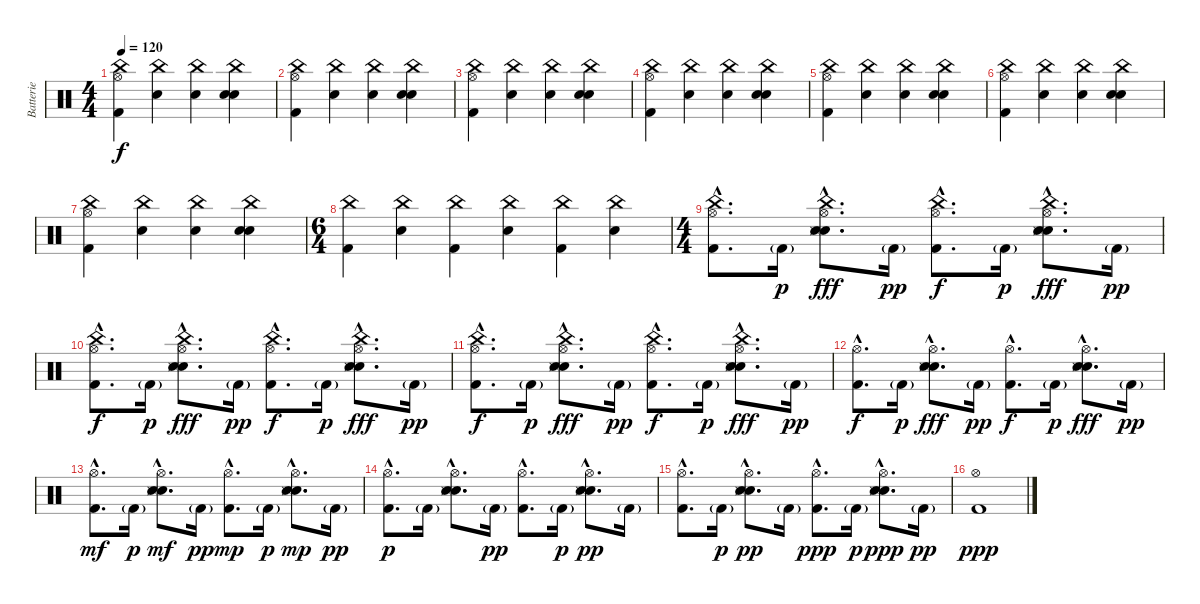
\track ("Batterie" "Batterie") {instrument percussion}
\staff {score}
\articulation defaults
\ts (4 4)
\tempo 120
\clef neutral
\ks c
("China (hit)" "Kick (hit) 2" "Hi-Hat (open)").4{dy f} ("China (hit)" "Electric Snare (hit)").4 ("China (hit)" "Electric Snare (hit)").4 ("China (hit)" "Electric Snare (hit)" "Hand Clap (hit)").4 |
("China (hit)" "Kick (hit) 2" "Hi-Hat (open)").4 ("China (hit)" "Electric Snare (hit)").4 ("China (hit)" "Electric Snare (hit)").4 ("China (hit)" "Electric Snare (hit)" "Hand Clap (hit)").4 |
("China (hit)" "Kick (hit) 2" "Hi-Hat (open)").4 ("China (hit)" "Electric Snare (hit)").4 ("China (hit)" "Electric Snare (hit)").4 ("China (hit)" "Electric Snare (hit)" "Hand Clap (hit)").4 |
("China (hit)" "Kick (hit) 2" "Hi-Hat (open)").4 ("China (hit)" "Electric Snare (hit)").4 ("China (hit)" "Electric Snare (hit)").4 ("China (hit)" "Electric Snare (hit)" "Hand Clap (hit)").4 |
("China (hit)" "Kick (hit) 2" "Hi-Hat (open)").4 ("China (hit)" "Electric Snare (hit)").4 ("China (hit)" "Electric Snare (hit)").4 ("China (hit)" "Electric Snare (hit)" "Hand Clap (hit)").4 |
("China (hit)" "Kick (hit) 2" "Hi-Hat (open)").4 ("China (hit)" "Electric Snare (hit)").4 ("China (hit)" "Electric Snare (hit)").4 ("China (hit)" "Electric Snare (hit)" "Hand Clap (hit)").4 |
("China (hit)" "Kick (hit) 2" "Hi-Hat (open)").4 ("China (hit)" "Electric Snare (hit)").4 ("China (hit)" "Electric Snare (hit)").4 ("China (hit)" "Electric Snare (hit)" "Hand Clap (hit)").4 |
\ts (6 4)
("China (hit)" "Kick (hit) 2").4 ("China (hit)" "Electric Snare (hit)").4 ("China (hit)" "Kick (hit) 2").4 ("China (hit)" "Electric Snare (hit)").4 ("China (hit)" "Kick (hit) 2").4 ("China (hit)" "Electric Snare (hit)").4 |
\ts (4 4)
("Kick (hit) 2"{hac} "Hi-Hat (open)"{hac} "China (hit)"{hac}).8{d} "Kick (hit) 2"{g}.16{dy p} ("Hand Clap (hit)"{hac} "Electric Snare (hit)"{hac} "Hi-Hat (open)"{hac} "Snare (side stick) 3"{hac} "China (hit)"{hac}).8{d dy fff} "Kick (hit) 2"{g}.16{dy pp} ("Kick (hit) 2"{hac} "Hi-Hat (open)"{hac} "China (hit)"{hac}).8{d dy f} "Kick (hit) 2"{g}.16{dy p} ("Hand Clap (hit)"{hac} "Electric Snare (hit)"{hac} "Hi-Hat (open)"{hac} "Snare (side stick) 3"{hac} "China (hit)"{hac}).8{d dy fff} "Kick (hit) 2"{g}.16{dy pp} |
("Kick (hit) 2"{hac} "Hi-Hat (open)"{hac} "China (hit)"{hac}).8{d dy f} "Kick (hit) 2"{g}.16{dy p} ("Hand Clap (hit)"{hac} "Electric Snare (hit)"{hac} "Hi-Hat (open)"{hac} "Snare (side stick) 3"{hac} "China (hit)"{hac}).8{d dy fff} "Kick (hit) 2"{g}.16{dy pp} ("Kick (hit) 2"{hac} "Hi-Hat (open)"{hac} "China (hit)"{hac}).8{d dy f} "Kick (hit) 2"{g}.16{dy p} ("Hand Clap (hit)"{hac} "Electric Snare (hit)"{hac} "Hi-Hat (open)"{hac} "Snare (side stick) 3"{hac} "China (hit)"{hac}).8{d dy fff} "Kick (hit) 2"{g}.16{dy pp} |
("Kick (hit) 2"{hac} "Hi-Hat (open)"{hac} "China (hit)"{hac}).8{d dy f} "Kick (hit) 2"{g}.16{dy p} ("Hand Clap (hit)"{hac} "Electric Snare (hit)"{hac} "Hi-Hat (open)"{hac} "Snare (side stick) 3"{hac} "China (hit)"{hac}).8{d dy fff} "Kick (hit) 2"{g}.16{dy pp} ("Kick (hit) 2"{hac} "Hi-Hat (open)"{hac} "China (hit)"{hac}).8{d dy f} "Kick (hit) 2"{g}.16{dy p} ("Hand Clap (hit)"{hac} "Electric Snare (hit)"{hac} "Hi-Hat (open)"{hac} "Snare (side stick) 3"{hac} "China (hit)"{hac}).8{d dy fff} "Kick (hit) 2"{g}.16{dy pp} |
("Kick (hit) 2"{hac} "Hi-Hat (open)"{hac}).8{d dy f} "Kick (hit) 2"{g}.16{dy p} ("Hand Clap (hit)"{hac} "Electric Snare (hit)"{hac} "Hi-Hat (open)"{hac} "Snare (side stick) 3"{hac}).8{d dy fff} "Kick (hit) 2"{g}.16{dy pp} ("Kick (hit) 2"{hac} "Hi-Hat (open)"{hac}).8{d dy f} "Kick (hit) 2"{g}.16{dy p} ("Hand Clap (hit)"{hac} "Electric Snare (hit)"{hac} "Hi-Hat (open)"{hac} "Snare (side stick) 3"{hac}).8{d dy fff} "Kick (hit) 2"{g}.16{dy pp} |
("Kick (hit) 2"{hac} "Hi-Hat (open)"{hac}).8{d dy mf} "Kick (hit) 2"{g}.16{dy p} ("Hand Clap (hit)"{hac} "Electric Snare (hit)"{hac} "Hi-Hat (open)"{hac} "Snare (side stick) 3"{hac}).8{d dy mf} "Kick (hit) 2"{g}.16{dy pp} ("Kick (hit) 2"{hac} "Hi-Hat (open)"{hac}).8{d dy mp} "Kick (hit) 2"{g}.16{dy p} ("Hand Clap (hit)"{hac} "Electric Snare (hit)"{hac} "Hi-Hat (open)"{hac} "Snare (side stick) 3"{hac}).8{d dy mp} "Kick (hit) 2"{g}.16{dy pp} |
("Kick (hit) 2"{hac} "Hi-Hat (open)"{hac}).8{d dy p} "Kick (hit) 2"{g}.16 ("Hand Clap (hit)"{hac} "Electric Snare (hit)"{hac} "Hi-Hat (open)"{hac} "Snare (side stick) 3"{hac}).8{d} "Kick (hit) 2"{g}.16{dy pp} ("Kick (hit) 2"{hac} "Hi-Hat (open)"{hac}).8{d} "Kick (hit) 2"{g}.16{dy p} ("Hand Clap (hit)"{hac} "Electric Snare (hit)"{hac} "Hi-Hat (open)"{hac} "Snare (side stick) 3"{hac}).8{d dy pp} "Kick (hit) 2"{g}.16 |
("Kick (hit) 2"{hac} "Hi-Hat (open)"{hac}).8{d} "Kick (hit) 2"{g}.16{dy p} ("Hand Clap (hit)"{hac} "Electric Snare (hit)"{hac} "Hi-Hat (open)"{hac} "Snare (side stick) 3"{hac}).8{d dy pp} "Kick (hit) 2"{g}.16 ("Kick (hit) 2"{hac} "Hi-Hat (open)"{hac}).8{d dy ppp} "Kick (hit) 2"{g}.16{dy p} ("Hand Clap (hit)"{hac} "Electric Snare (hit)"{hac} "Hi-Hat (open)"{hac} "Snare (side stick) 3"{hac}).8{d dy ppp} "Kick (hit) 2"{g}.16{dy pp} |
("Kick (hit) 2" "Hi-Hat (open)").1{dy ppp}
